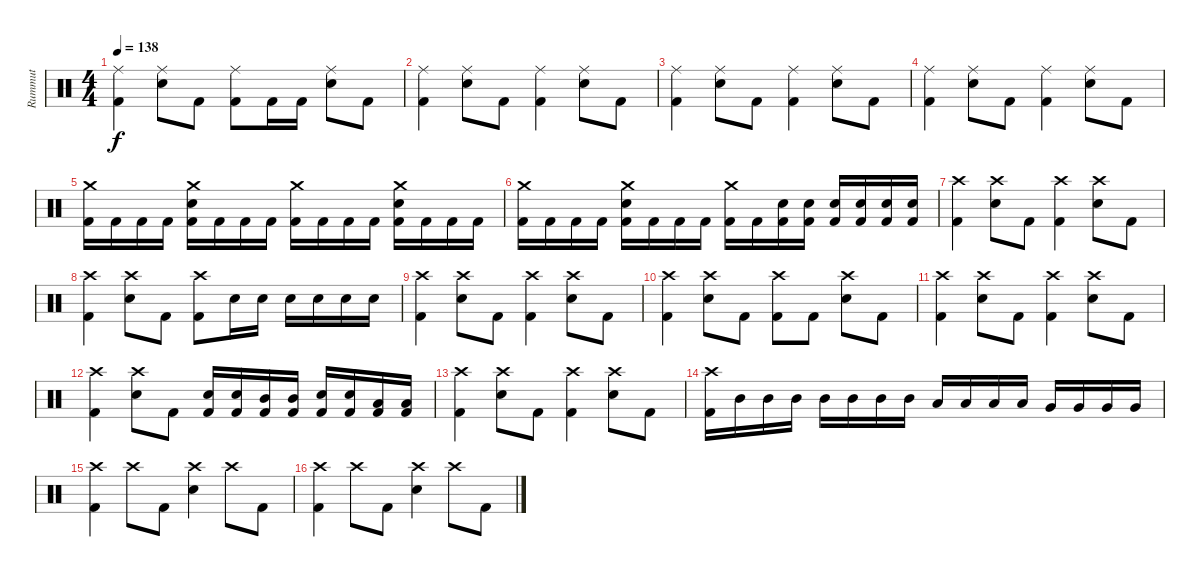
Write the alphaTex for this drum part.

\track ("Rummut" "Rummut") {instrument percussion}
\staff {score}
\articulation defaults
\ts (4 4)
\tempo 138
\clef neutral
\ks c
("Ride (middle)" "Kick (hit) 2").4{dy f} ("Ride (middle)" "Snare (hit) 2").8 "Kick (hit) 2".8 ("Ride (middle)" "Kick (hit) 2").8 "Kick (hit) 2".16 "Kick (hit) 2".16 ("Ride (middle)" "Snare (hit) 2").8 "Kick (hit) 2".8 |
("Ride (middle)" "Kick (hit) 2").4 ("Ride (middle)" "Snare (hit) 2").8 "Kick (hit) 2".8 ("Ride (middle)" "Kick (hit) 2").4 ("Ride (middle)" "Snare (hit) 2").8 "Kick (hit) 2".8 |
("Ride (middle)" "Kick (hit) 2").4 ("Ride (middle)" "Snare (hit) 2").8 "Kick (hit) 2".8 ("Ride (middle)" "Kick (hit) 2").4 ("Ride (middle)" "Snare (hit) 2").8 "Kick (hit) 2".8 |
("Ride (middle)" "Kick (hit) 2").4 ("Ride (middle)" "Snare (hit) 2").8 "Kick (hit) 2".8 ("Ride (middle)" "Kick (hit) 2").4 ("Ride (middle)" "Snare (hit) 2").8 "Kick (hit) 2".8 |
("Crash medium (hit)" "Kick (hit) 2").16 "Kick (hit) 2".16 "Kick (hit) 2".16 "Kick (hit) 2".16 ("Crash medium (hit)" "Snare (hit) 2" "Kick (hit) 2").16 "Kick (hit) 2".16 "Kick (hit) 2".16 "Kick (hit) 2".16 ("Crash medium (hit)" "Kick (hit) 2").16 "Kick (hit) 2".16 "Kick (hit) 2".16 "Kick (hit) 2".16 ("Crash medium (hit)" "Snare (hit) 2" "Kick (hit) 2").16 "Kick (hit) 2".16 "Kick (hit) 2".16 "Kick (hit) 2".16 |
("Crash medium (hit)" "Kick (hit) 2").16 "Kick (hit) 2".16 "Kick (hit) 2".16 "Kick (hit) 2".16 ("Crash medium (hit)" "Snare (hit) 2" "Kick (hit) 2").16 "Kick (hit) 2".16 "Kick (hit) 2".16 "Kick (hit) 2".16 ("Crash medium (hit)" "Kick (hit) 2").16 "Kick (hit) 2".16 ("Snare (hit) 2" "Kick (hit) 2").16 ("Snare (hit) 2" "Kick (hit) 2").16 ("Snare (hit) 2" "Kick (hit) 2").16 ("Snare (hit) 2" "Kick (hit) 2").16 ("Snare (hit) 2" "Kick (hit) 2").16 ("Snare (hit) 2" "Kick (hit) 2").16 |
("Crash high (hit)" "Kick (hit) 2").4 ("Crash high (hit)" "Snare (hit) 2").8 "Kick (hit) 2".8 ("Crash high (hit)" "Kick (hit) 2").4 ("Crash high (hit)" "Snare (hit) 2").8 "Kick (hit) 2".8 |
("Crash high (hit)" "Kick (hit) 2").4 ("Crash high (hit)" "Snare (hit) 2").8 "Kick (hit) 2".8 ("Crash high (hit)" "Kick (hit) 2").8 "Snare (hit) 2".16 "Snare (hit) 2".16 "Snare (hit) 2".16 "Snare (hit) 2".16 "Snare (hit) 2".16 "Snare (hit) 2".16 |
("Crash high (hit)" "Kick (hit) 2").4 ("Crash high (hit)" "Snare (hit) 2").8 "Kick (hit) 2".8 ("Crash high (hit)" "Kick (hit) 2").4 ("Crash high (hit)" "Snare (hit) 2").8 "Kick (hit) 2".8 |
("Crash high (hit)" "Kick (hit) 2").4 ("Crash high (hit)" "Snare (hit) 2").8 "Kick (hit) 2".8 ("Crash high (hit)" "Kick (hit) 2").8 "Kick (hit) 2".8 ("Crash high (hit)" "Snare (hit) 2").8 "Kick (hit) 2".8 |
("Crash high (hit)" "Kick (hit) 2").4 ("Crash high (hit)" "Snare (hit) 2").8 "Kick (hit) 2".8 ("Crash high (hit)" "Kick (hit) 2").4 ("Crash high (hit)" "Snare (hit) 2").8 "Kick (hit) 2".8 |
("Crash high (hit)" "Kick (hit) 2").4 ("Crash high (hit)" "Snare (hit) 2").8 "Kick (hit) 2".8 ("Snare (hit) 2" "Kick (hit) 2").16 ("Snare (hit) 2" "Kick (hit) 2").16 ("Mid Tom (hit)" "Kick (hit) 2").16 ("Mid Tom (hit)" "Kick (hit) 2").16 ("Snare (hit) 2" "Kick (hit) 2").16 ("Snare (hit) 2" "Kick (hit) 2").16 ("Low Tom (hit)" "Kick (hit) 2").16 ("Low Tom (hit)" "Kick (hit) 2").16 |
("Crash high (hit)" "Kick (hit) 2").4 ("Crash high (hit)" "Snare (hit) 2").8 "Kick (hit) 2".8 ("Crash high (hit)" "Kick (hit) 2").4 ("Crash high (hit)" "Snare (hit) 2").8 "Kick (hit) 2".8 |
("Crash high (hit)" "Kick (hit) 2").16 "Mid Tom (hit)".16 "Mid Tom (hit)".16 "Mid Tom (hit)".16 "Mid Tom (hit)".16 "Mid Tom (hit)".16 "Mid Tom (hit)".16 "Mid Tom (hit)".16 "Low Tom (hit)".16 "Low Tom (hit)".16 "Low Tom (hit)".16 "Low Tom (hit)".16 "Very Low Tom (hit)".16 "Very Low Tom (hit)".16 "Very Low Tom (hit)".16 "Very Low Tom (hit)".16 |
("Crash high (hit)" "Kick (hit) 2").4 "Crash high (hit)".8 "Kick (hit) 2".8 ("Crash high (hit)" "Snare (hit) 2").4 "Crash high (hit)".8 "Kick (hit) 2".8 |
("Crash high (hit)" "Kick (hit) 2").4 "Crash high (hit)".8 "Kick (hit) 2".8 ("Crash high (hit)" "Snare (hit) 2").4 "Crash high (hit)".8 "Kick (hit) 2".8
